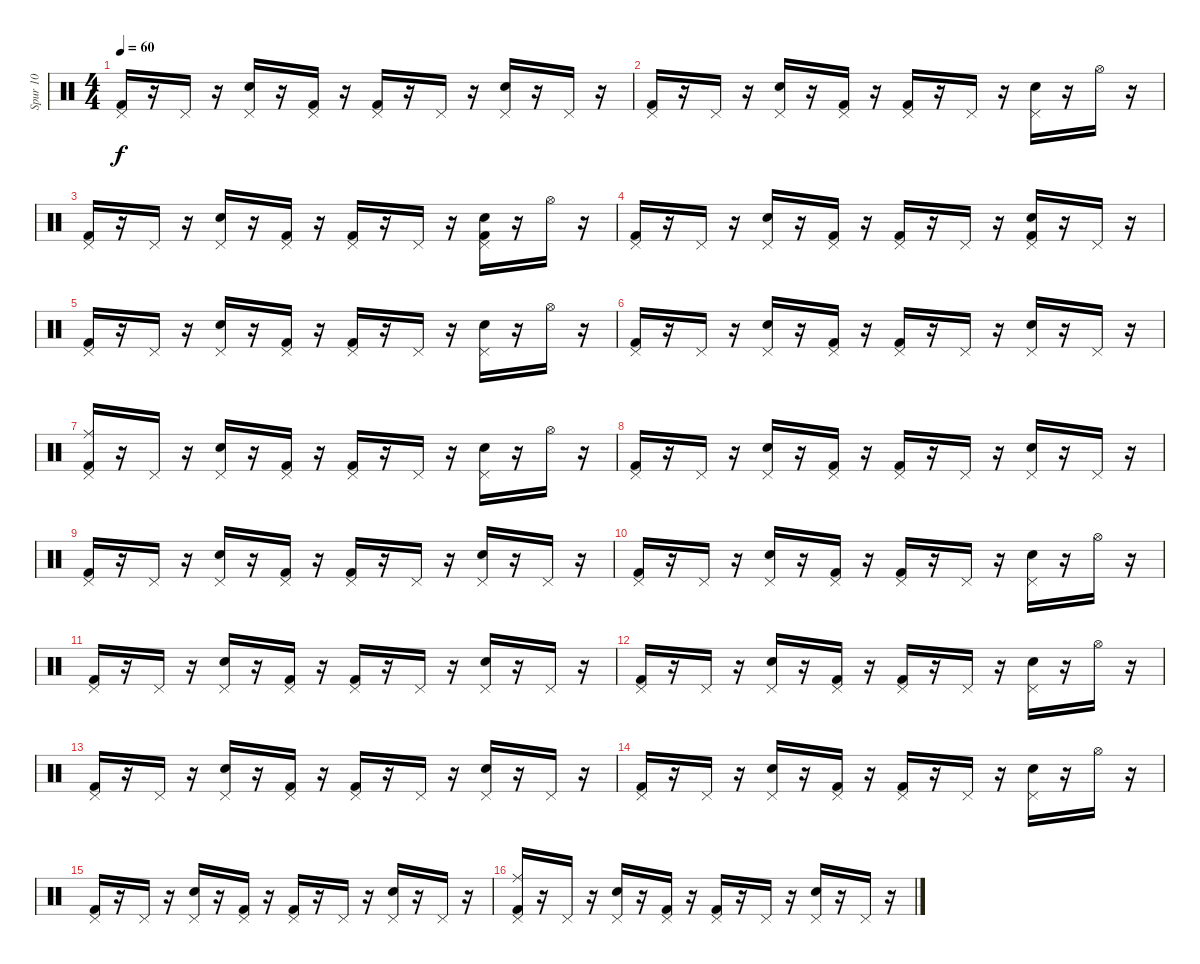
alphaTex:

\track ("Spur 10" "Spur 10") {instrument percussion}
\staff {score}
\articulation defaults
\ts (4 4)
\tempo 60
\clef neutral
\ks c
("Pedal Hi-Hat (hit)" "Kick (hit) 2").16{dy f} r.16 "Pedal Hi-Hat (hit)".16 r.16 ("Snare (hit) 2" "Pedal Hi-Hat (hit)").16 r.16 ("Kick (hit) 2" "Pedal Hi-Hat (hit)").16 r.16 ("Pedal Hi-Hat (hit)" "Kick (hit) 2").16 r.16 "Pedal Hi-Hat (hit)".16 r.16 ("Snare (hit) 2" "Pedal Hi-Hat (hit)").16 r.16 "Pedal Hi-Hat (hit)".16 r.16 |
("Pedal Hi-Hat (hit)" "Kick (hit) 2").16 r.16 "Pedal Hi-Hat (hit)".16 r.16 ("Snare (hit) 2" "Pedal Hi-Hat (hit)").16 r.16 ("Kick (hit) 2" "Pedal Hi-Hat (hit)").16 r.16 ("Pedal Hi-Hat (hit)" "Kick (hit) 2").16 r.16 "Pedal Hi-Hat (hit)".16 r.16 ("Snare (hit) 2" "Pedal Hi-Hat (hit)").16 r.16 "Hi-Hat (open)".16 r.16 |
("Pedal Hi-Hat (hit)" "Kick (hit) 2").16 r.16 "Pedal Hi-Hat (hit)".16 r.16 ("Snare (hit) 2" "Pedal Hi-Hat (hit)").16 r.16 ("Kick (hit) 2" "Pedal Hi-Hat (hit)").16 r.16 ("Pedal Hi-Hat (hit)" "Kick (hit) 2").16 r.16 "Pedal Hi-Hat (hit)".16 r.16 ("Kick (hit) 2" "Snare (hit) 2" "Pedal Hi-Hat (hit)").16 r.16 "Hi-Hat (open)".16 r.16 |
("Pedal Hi-Hat (hit)" "Kick (hit) 2").16 r.16 "Pedal Hi-Hat (hit)".16 r.16 ("Snare (hit) 2" "Pedal Hi-Hat (hit)").16 r.16 ("Kick (hit) 2" "Pedal Hi-Hat (hit)").16 r.16 ("Pedal Hi-Hat (hit)" "Kick (hit) 2").16 r.16 "Pedal Hi-Hat (hit)".16 r.16 ("Kick (hit) 2" "Snare (hit) 2" "Pedal Hi-Hat (hit)").16 r.16 "Pedal Hi-Hat (hit)".16 r.16 |
("Pedal Hi-Hat (hit)" "Kick (hit) 2").16 r.16 "Pedal Hi-Hat (hit)".16 r.16 ("Snare (hit) 2" "Pedal Hi-Hat (hit)").16 r.16 ("Kick (hit) 2" "Pedal Hi-Hat (hit)").16 r.16 ("Pedal Hi-Hat (hit)" "Kick (hit) 2").16 r.16 "Pedal Hi-Hat (hit)".16 r.16 ("Snare (hit) 2" "Pedal Hi-Hat (hit)").16 r.16 "Hi-Hat (open)".16 r.16 |
("Pedal Hi-Hat (hit)" "Kick (hit) 2").16 r.16 "Pedal Hi-Hat (hit)".16 r.16 ("Snare (hit) 2" "Pedal Hi-Hat (hit)").16 r.16 ("Kick (hit) 2" "Pedal Hi-Hat (hit)").16 r.16 ("Pedal Hi-Hat (hit)" "Kick (hit) 2").16 r.16 "Pedal Hi-Hat (hit)".16 r.16 ("Snare (hit) 2" "Pedal Hi-Hat (hit)").16 r.16 "Pedal Hi-Hat (hit)".16 r.16 |
("Ride (middle)" "Pedal Hi-Hat (hit)" "Kick (hit) 2").16 r.16 "Pedal Hi-Hat (hit)".16 r.16 ("Snare (hit) 2" "Pedal Hi-Hat (hit)").16 r.16 ("Kick (hit) 2" "Pedal Hi-Hat (hit)").16 r.16 ("Pedal Hi-Hat (hit)" "Kick (hit) 2").16 r.16 "Pedal Hi-Hat (hit)".16 r.16 ("Snare (hit) 2" "Pedal Hi-Hat (hit)").16 r.16 "Hi-Hat (open)".16 r.16 |
("Pedal Hi-Hat (hit)" "Kick (hit) 2").16 r.16 "Pedal Hi-Hat (hit)".16 r.16 ("Snare (hit) 2" "Pedal Hi-Hat (hit)").16 r.16 ("Kick (hit) 2" "Pedal Hi-Hat (hit)").16 r.16 ("Pedal Hi-Hat (hit)" "Kick (hit) 2").16 r.16 "Pedal Hi-Hat (hit)".16 r.16 ("Snare (hit) 2" "Pedal Hi-Hat (hit)").16 r.16 "Pedal Hi-Hat (hit)".16 r.16 |
("Pedal Hi-Hat (hit)" "Kick (hit) 2").16 r.16 "Pedal Hi-Hat (hit)".16 r.16 ("Snare (hit) 2" "Pedal Hi-Hat (hit)").16 r.16 ("Kick (hit) 2" "Pedal Hi-Hat (hit)").16 r.16 ("Pedal Hi-Hat (hit)" "Kick (hit) 2").16 r.16 "Pedal Hi-Hat (hit)".16 r.16 ("Snare (hit) 2" "Pedal Hi-Hat (hit)").16 r.16 "Pedal Hi-Hat (hit)".16 r.16 |
("Pedal Hi-Hat (hit)" "Kick (hit) 2").16 r.16 "Pedal Hi-Hat (hit)".16 r.16 ("Snare (hit) 2" "Pedal Hi-Hat (hit)").16 r.16 ("Kick (hit) 2" "Pedal Hi-Hat (hit)").16 r.16 ("Pedal Hi-Hat (hit)" "Kick (hit) 2").16 r.16 "Pedal Hi-Hat (hit)".16 r.16 ("Snare (hit) 2" "Pedal Hi-Hat (hit)").16 r.16 "Hi-Hat (open)".16 r.16 |
("Pedal Hi-Hat (hit)" "Kick (hit) 2").16 r.16 "Pedal Hi-Hat (hit)".16 r.16 ("Snare (hit) 2" "Pedal Hi-Hat (hit)").16 r.16 ("Kick (hit) 2" "Pedal Hi-Hat (hit)").16 r.16 ("Pedal Hi-Hat (hit)" "Kick (hit) 2").16 r.16 "Pedal Hi-Hat (hit)".16 r.16 ("Snare (hit) 2" "Pedal Hi-Hat (hit)").16 r.16 "Pedal Hi-Hat (hit)".16 r.16 |
("Pedal Hi-Hat (hit)" "Kick (hit) 2").16 r.16 "Pedal Hi-Hat (hit)".16 r.16 ("Snare (hit) 2" "Pedal Hi-Hat (hit)").16 r.16 ("Kick (hit) 2" "Pedal Hi-Hat (hit)").16 r.16 ("Pedal Hi-Hat (hit)" "Kick (hit) 2").16 r.16 "Pedal Hi-Hat (hit)".16 r.16 ("Snare (hit) 2" "Pedal Hi-Hat (hit)").16 r.16 "Hi-Hat (open)".16 r.16 |
("Pedal Hi-Hat (hit)" "Kick (hit) 2").16 r.16 "Pedal Hi-Hat (hit)".16 r.16 ("Snare (hit) 2" "Pedal Hi-Hat (hit)").16 r.16 ("Kick (hit) 2" "Pedal Hi-Hat (hit)").16 r.16 ("Pedal Hi-Hat (hit)" "Kick (hit) 2").16 r.16 "Pedal Hi-Hat (hit)".16 r.16 ("Snare (hit) 2" "Pedal Hi-Hat (hit)").16 r.16 "Pedal Hi-Hat (hit)".16 r.16 |
("Pedal Hi-Hat (hit)" "Kick (hit) 2").16 r.16 "Pedal Hi-Hat (hit)".16 r.16 ("Snare (hit) 2" "Pedal Hi-Hat (hit)").16 r.16 ("Kick (hit) 2" "Pedal Hi-Hat (hit)").16 r.16 ("Pedal Hi-Hat (hit)" "Kick (hit) 2").16 r.16 "Pedal Hi-Hat (hit)".16 r.16 ("Snare (hit) 2" "Pedal Hi-Hat (hit)").16 r.16 "Hi-Hat (open)".16 r.16 |
("Pedal Hi-Hat (hit)" "Kick (hit) 2").16 r.16 "Pedal Hi-Hat (hit)".16 r.16 ("Snare (hit) 2" "Pedal Hi-Hat (hit)").16 r.16 ("Kick (hit) 2" "Pedal Hi-Hat (hit)").16 r.16 ("Pedal Hi-Hat (hit)" "Kick (hit) 2").16 r.16 "Pedal Hi-Hat (hit)".16 r.16 ("Snare (hit) 2" "Pedal Hi-Hat (hit)").16 r.16 "Pedal Hi-Hat (hit)".16 r.16 |
("Pedal Hi-Hat (hit)" "Kick (hit) 2" "Ride (middle)").16 r.16 "Pedal Hi-Hat (hit)".16 r.16 ("Pedal Hi-Hat (hit)" "Snare (hit) 2").16 r.16 ("Pedal Hi-Hat (hit)" "Kick (hit) 2").16 r.16 ("Pedal Hi-Hat (hit)" "Kick (hit) 2").16 r.16 "Pedal Hi-Hat (hit)".16 r.16 ("Pedal Hi-Hat (hit)" "Snare (hit) 2").16 r.16 "Pedal Hi-Hat (hit)".16 r.16
